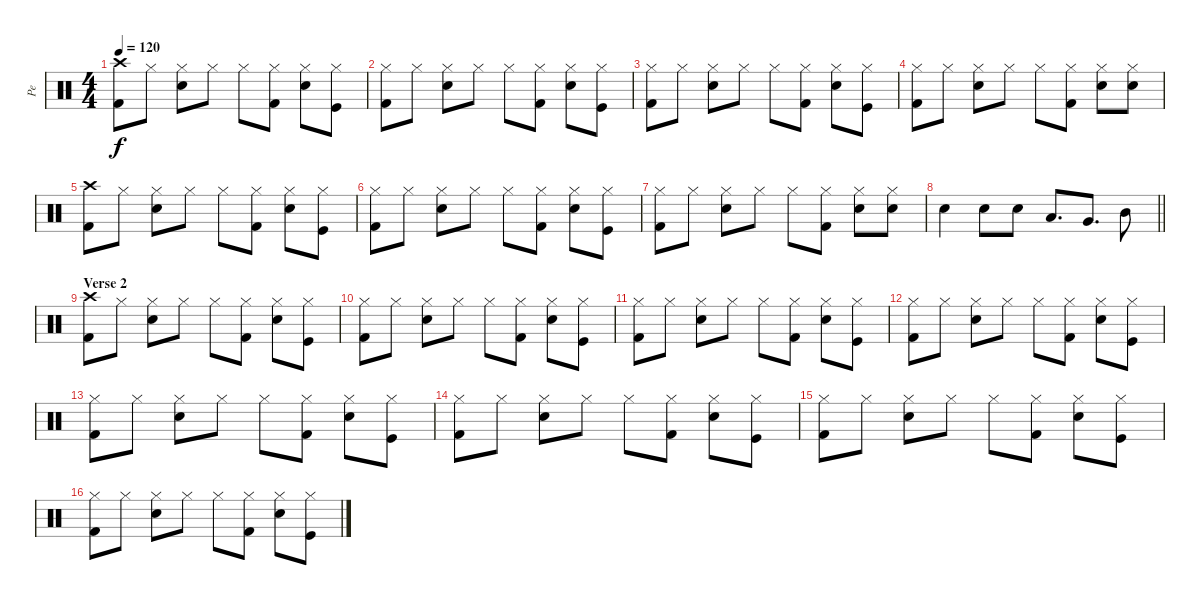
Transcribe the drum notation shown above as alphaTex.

\track ("Pe" "Pe") {instrument percussion}
\staff {score}
\articulation defaults
\ts (4 4)
\tempo 120
\clef neutral
\ks c
("Kick (hit) 2" "Crash high (hit)").8{dy f} "Hi-Hat (closed)".8 ("Snare (hit) 2" "Hi-Hat (closed)").8 "Hi-Hat (closed)".8 "Hi-Hat (closed)".8 ("Kick (hit) 2" "Hi-Hat (closed)").8 ("Snare (hit) 2" "Hi-Hat (closed)").8 ("Kick (hit)" "Hi-Hat (closed)").8 |
("Kick (hit) 2" "Hi-Hat (closed)").8 "Hi-Hat (closed)".8 ("Snare (hit) 2" "Hi-Hat (closed)").8 "Hi-Hat (closed)".8 "Hi-Hat (closed)".8 ("Kick (hit) 2" "Hi-Hat (closed)").8 ("Snare (hit) 2" "Hi-Hat (closed)").8 ("Kick (hit)" "Hi-Hat (closed)").8 |
("Kick (hit) 2" "Hi-Hat (closed)").8 "Hi-Hat (closed)".8 ("Snare (hit) 2" "Hi-Hat (closed)").8 "Hi-Hat (closed)".8 "Hi-Hat (closed)".8 ("Kick (hit) 2" "Hi-Hat (closed)").8 ("Snare (hit) 2" "Hi-Hat (closed)").8 ("Kick (hit)" "Hi-Hat (closed)").8 |
("Kick (hit) 2" "Hi-Hat (closed)").8 "Hi-Hat (closed)".8 ("Snare (hit) 2" "Hi-Hat (closed)").8 "Hi-Hat (closed)".8 "Hi-Hat (closed)".8 ("Kick (hit) 2" "Hi-Hat (closed)").8 ("Snare (hit) 2" "Hi-Hat (closed)").8 ("Snare (hit) 2" "Hi-Hat (closed)").8 |
("Kick (hit) 2" "Crash high (hit)").8 "Hi-Hat (closed)".8 ("Snare (hit) 2" "Hi-Hat (closed)").8 "Hi-Hat (closed)".8 "Hi-Hat (closed)".8 ("Kick (hit) 2" "Hi-Hat (closed)").8 ("Snare (hit) 2" "Hi-Hat (closed)").8 ("Kick (hit)" "Hi-Hat (closed)").8 |
("Kick (hit) 2" "Hi-Hat (closed)").8 "Hi-Hat (closed)".8 ("Snare (hit) 2" "Hi-Hat (closed)").8 "Hi-Hat (closed)".8 "Hi-Hat (closed)".8 ("Kick (hit) 2" "Hi-Hat (closed)").8 ("Snare (hit) 2" "Hi-Hat (closed)").8 ("Kick (hit)" "Hi-Hat (closed)").8 |
("Kick (hit) 2" "Hi-Hat (closed)").8 "Hi-Hat (closed)".8 ("Snare (hit) 2" "Hi-Hat (closed)").8 "Hi-Hat (closed)".8 "Hi-Hat (closed)".8 ("Kick (hit) 2" "Hi-Hat (closed)").8 ("Snare (hit) 2" "Hi-Hat (closed)").8 ("Snare (hit) 2" "Hi-Hat (closed)").8 |
\barLineRight lightlight "Snare (hit) 2".4 "Snare (hit) 2".8 "Snare (hit) 2".8 "Low Floor Tom (hit)".8{d} "Very Low Tom (hit)".8{d} "Mid Tom (hit)".8
|
\section ("" "Verse 2")
("Kick (hit) 2" "Crash high (hit)").8 "Hi-Hat (closed)".8 ("Snare (hit) 2" "Hi-Hat (closed)").8 "Hi-Hat (closed)".8 "Hi-Hat (closed)".8 ("Kick (hit) 2" "Hi-Hat (closed)").8 ("Snare (hit) 2" "Hi-Hat (closed)").8 ("Kick (hit)" "Hi-Hat (closed)").8 |
("Kick (hit) 2" "Hi-Hat (closed)").8 "Hi-Hat (closed)".8 ("Snare (hit) 2" "Hi-Hat (closed)").8 "Hi-Hat (closed)".8 "Hi-Hat (closed)".8 ("Kick (hit) 2" "Hi-Hat (closed)").8 ("Snare (hit) 2" "Hi-Hat (closed)").8 ("Kick (hit)" "Hi-Hat (closed)").8 |
("Kick (hit) 2" "Hi-Hat (closed)").8 "Hi-Hat (closed)".8 ("Snare (hit) 2" "Hi-Hat (closed)").8 "Hi-Hat (closed)".8 "Hi-Hat (closed)".8 ("Kick (hit) 2" "Hi-Hat (closed)").8 ("Snare (hit) 2" "Hi-Hat (closed)").8 ("Kick (hit)" "Hi-Hat (closed)").8 |
("Kick (hit) 2" "Hi-Hat (closed)").8 "Hi-Hat (closed)".8 ("Snare (hit) 2" "Hi-Hat (closed)").8 "Hi-Hat (closed)".8 "Hi-Hat (closed)".8 ("Kick (hit) 2" "Hi-Hat (closed)").8 ("Snare (hit) 2" "Hi-Hat (closed)").8 ("Kick (hit)" "Hi-Hat (closed)").8 |
("Kick (hit) 2" "Hi-Hat (closed)").8 "Hi-Hat (closed)".8 ("Snare (hit) 2" "Hi-Hat (closed)").8 "Hi-Hat (closed)".8 "Hi-Hat (closed)".8 ("Kick (hit) 2" "Hi-Hat (closed)").8 ("Snare (hit) 2" "Hi-Hat (closed)").8 ("Kick (hit)" "Hi-Hat (closed)").8 |
("Kick (hit) 2" "Hi-Hat (closed)").8 "Hi-Hat (closed)".8 ("Snare (hit) 2" "Hi-Hat (closed)").8 "Hi-Hat (closed)".8 "Hi-Hat (closed)".8 ("Kick (hit) 2" "Hi-Hat (closed)").8 ("Snare (hit) 2" "Hi-Hat (closed)").8 ("Kick (hit)" "Hi-Hat (closed)").8 |
("Kick (hit) 2" "Hi-Hat (closed)").8 "Hi-Hat (closed)".8 ("Snare (hit) 2" "Hi-Hat (closed)").8 "Hi-Hat (closed)".8 "Hi-Hat (closed)".8 ("Kick (hit) 2" "Hi-Hat (closed)").8 ("Snare (hit) 2" "Hi-Hat (closed)").8 ("Kick (hit)" "Hi-Hat (closed)").8 |
("Kick (hit) 2" "Hi-Hat (closed)").8 "Hi-Hat (closed)".8 ("Snare (hit) 2" "Hi-Hat (closed)").8 "Hi-Hat (closed)".8 "Hi-Hat (closed)".8 ("Kick (hit) 2" "Hi-Hat (closed)").8 ("Snare (hit) 2" "Hi-Hat (closed)").8 ("Kick (hit)" "Hi-Hat (closed)").8
